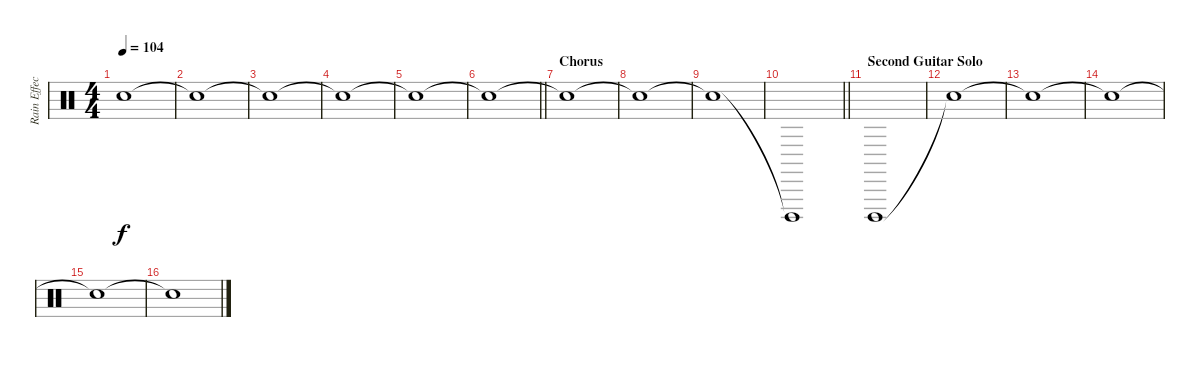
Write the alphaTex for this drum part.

\track ("Rain Effect" "Rain Effec") {instrument percussion}
\staff {score}
\articulation defaults
\ts (4 4)
\tempo 104
\clef neutral
\ks c "Snare (hit)"{t}.1{dy f}
|
"Snare (hit)"{t}.1 |
"Snare (hit)"{t}.1 |
"Snare (hit)"{t}.1 |
"Snare (hit)"{t}.1 |
\barLineRight lightlight "Snare (hit)"{t}.1
|
\section ("" "Chorus")
"Snare (hit)"{t}.1 |
"Snare (hit)"{t}.1 |
"Snare (hit)"{t}.1 |
\barLineRight lightlight "Cuica (open)"{t}.1
|
\section ("" "Second Guitar Solo")
"Cuica (open)".1 |
"Snare (hit)"{t}.1 |
"Snare (hit)"{t}.1 |
"Snare (hit)"{t}.1 |
"Snare (hit)"{t}.1 |
"Snare (hit)"{t}.1
